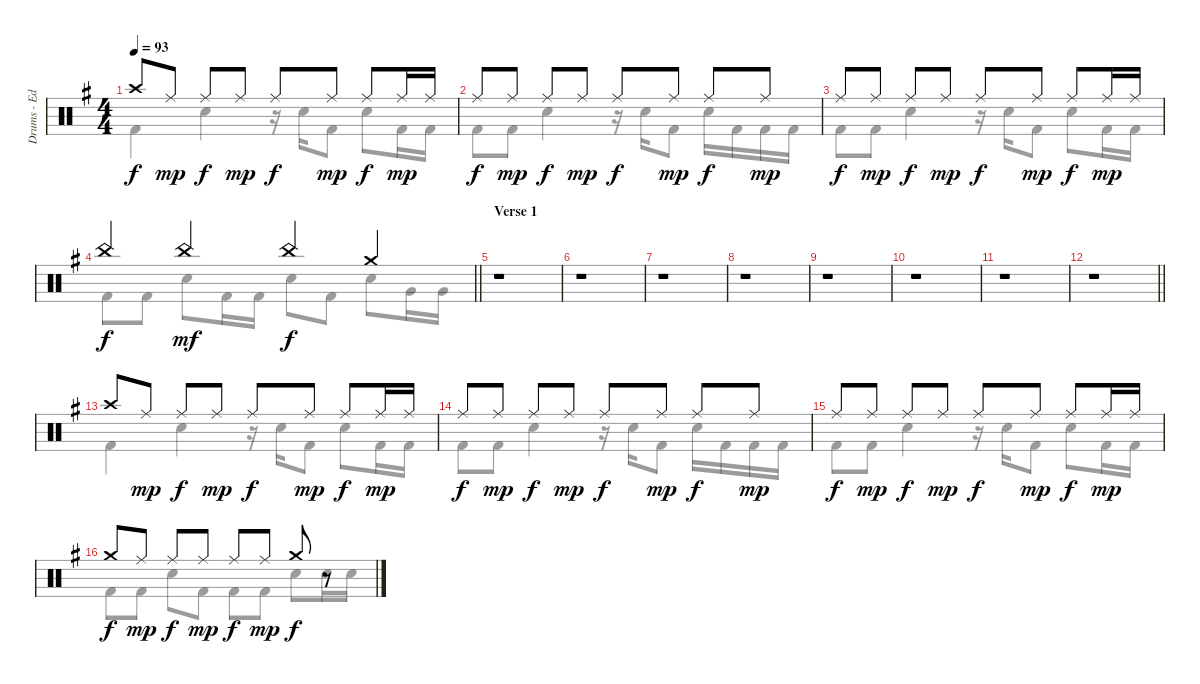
\track ("Drums - Ed Warby" "Drums - Ed") {instrument percussion}
\staff {score}
\articulation defaults
\voice
\ts (4 4)
\tempo 93
\clef neutral
\ks eminor "Crash high (hit)".8{dy f} "Ride (middle)".8{dy mp} "Ride (middle)".8{dy f} "Ride (middle)".8{dy mp} "Ride (middle)".8{dy f} "Ride (middle)".8{dy mp} "Ride (middle)".8{dy f} "Ride (middle)".16{dy mp} "Ride (middle)".16
|
"Ride (middle)".8{dy f} "Ride (middle)".8{dy mp} "Ride (middle)".8{dy f} "Ride (middle)".8{dy mp} "Ride (middle)".8{dy f} "Ride (middle)".8{dy mp} "Ride (middle)".8{dy f} "Ride (middle)".8{dy mp} |
"Ride (middle)".8{dy f} "Ride (middle)".8{dy mp} "Ride (middle)".8{dy f} "Ride (middle)".8{dy mp} "Ride (middle)".8{dy f} "Ride (middle)".8{dy mp} "Ride (middle)".8{dy f} "Ride (middle)".16{dy mp} "Ride (middle)".16 |
\barLineRight lightlight "China (hit)".4{dy f} "China (hit)".4{dy mf} "China (hit)".4{dy f} "Crash medium (hit)".4
|
\section ("" "Verse 1")
r.1 |
r.1 |
r.1 |
r.1 |
r.1 |
r.1 |
r.1 |
\barLineRight lightlight
r.1 |
"Crash high (hit)".8 "Ride (middle)".8{dy mp} "Ride (middle)".8{dy f} "Ride (middle)".8{dy mp} "Ride (middle)".8{dy f} "Ride (middle)".8{dy mp} "Ride (middle)".8{dy f} "Ride (middle)".16{dy mp} "Ride (middle)".16 |
"Ride (middle)".8{dy f} "Ride (middle)".8{dy mp} "Ride (middle)".8{dy f} "Ride (middle)".8{dy mp} "Ride (middle)".8{dy f} "Ride (middle)".8{dy mp} "Ride (middle)".8{dy f} "Ride (middle)".8{dy mp} |
"Ride (middle)".8{dy f} "Ride (middle)".8{dy mp} "Ride (middle)".8{dy f} "Ride (middle)".8{dy mp} "Ride (middle)".8{dy f} "Ride (middle)".8{dy mp} "Ride (middle)".8{dy f} "Ride (middle)".16{dy mp} "Ride (middle)".16 |
"Crash medium (hit)".8{dy f} "Ride (middle)".8{dy mp} "Ride (middle)".8{dy f} "Ride (middle)".8{dy mp} "Ride (middle)".8{dy f} "Ride (middle)".8{dy mp} "Crash medium (hit)".8{dy f} r.8
\voice
\clef neutral
\ottava regular
\simile none
\ks eminor "Kick (hit) 2".4{dy f} "Snare (hit) 2".4
r.16 "Snare (hit) 2".16 "Kick (hit) 2".8 "Snare (hit) 2".8 "Kick (hit) 2".16 "Kick (hit) 2".16 |
"Kick (hit) 2".8 "Kick (hit) 2".8 "Snare (hit) 2".4 r.16 "Snare (hit) 2".16 "Kick (hit) 2".8 "Snare (hit) 2".16 "Kick (hit) 2".16 "Kick (hit) 2".16 "Kick (hit) 2".16 |
"Kick (hit) 2".8 "Kick (hit) 2".8 "Snare (hit) 2".4 r.16 "Snare (hit) 2".16 "Kick (hit) 2".8 "Snare (hit) 2".8 "Kick (hit) 2".16 "Kick (hit) 2".16 |
\barLineRight lightlight "Kick (hit) 2".8 "Kick (hit) 2".8 "Snare (hit) 2".8 "Kick (hit) 2".16 "Kick (hit) 2".16 "Snare (hit) 2".8 "Kick (hit) 2".8 "Snare (hit) 2".8 "Very Low Tom (hit)".16 "Very Low Tom (hit)".16
|
|
|
|
|
|
|
|
\barLineRight lightlight
|
"Kick (hit) 2".4 "Snare (hit) 2".4 r.16 "Snare (hit) 2".16 "Kick (hit) 2".8 "Snare (hit) 2".8 "Kick (hit) 2".16 "Kick (hit) 2".16 |
"Kick (hit) 2".8 "Kick (hit) 2".8 "Snare (hit) 2".4 r.16 "Snare (hit) 2".16 "Kick (hit) 2".8 "Snare (hit) 2".16 "Kick (hit) 2".16 "Kick (hit) 2".16 "Kick (hit) 2".16 |
"Kick (hit) 2".8 "Kick (hit) 2".8 "Snare (hit) 2".4 r.16 "Snare (hit) 2".16 "Kick (hit) 2".8 "Snare (hit) 2".8 "Kick (hit) 2".16 "Kick (hit) 2".16 |
"Kick (hit) 2".8 "Kick (hit) 2".8 "Snare (hit) 2".8 "Kick (hit) 2".8 "Kick (hit) 2".8 "Kick (hit) 2".8 "Snare (hit) 2".8 "Snare (hit) 2".16 "Snare (hit) 2".16
